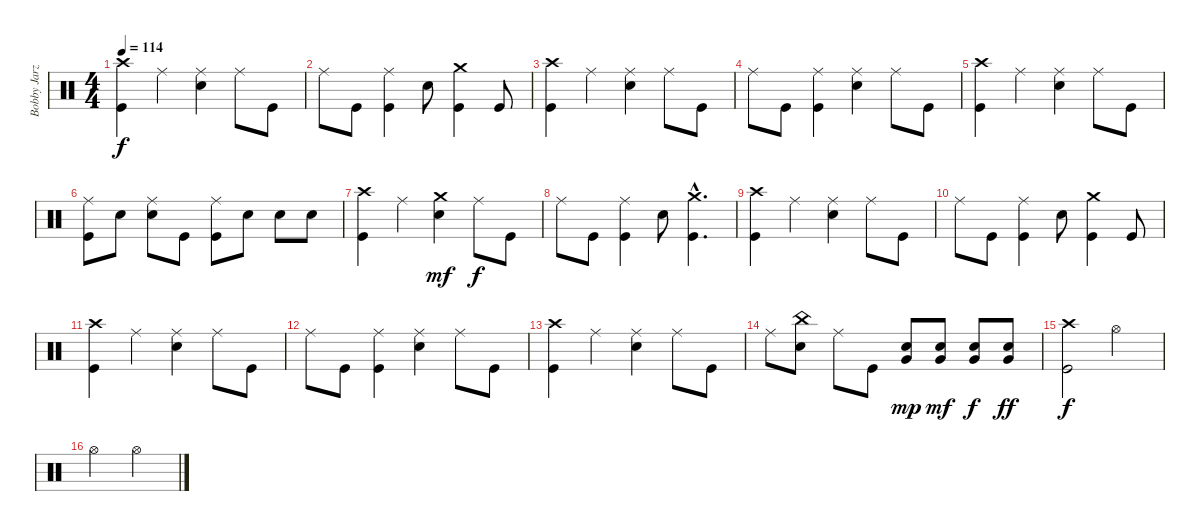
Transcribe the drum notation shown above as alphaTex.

\track ("Bobby Jarzombek" "Bobby Jarz") {instrument percussion}
\staff {score}
\articulation defaults
\ts (4 4)
\tempo 114
\clef neutral
\ks c
("Crash high (hit)" "Kick (hit)").4{dy f} "Ride (middle)".4 ("Ride (middle)" "Electric Snare (hit)").4 "Ride (middle)".8 "Kick (hit)".8 |
"Ride (middle)".8 "Kick (hit)".8 ("Ride (middle)" "Kick (hit)").4 "Electric Snare (hit)".8 ("Crash medium (hit)" "Kick (hit)").4 "Kick (hit)".8 |
("Crash high (hit)" "Kick (hit)").4 "Ride (middle)".4 ("Ride (middle)" "Electric Snare (hit)").4 "Ride (middle)".8 "Kick (hit)".8 |
"Ride (middle)".8 "Kick (hit)".8 ("Ride (middle)" "Kick (hit)").4 ("Ride (middle)" "Electric Snare (hit)").4 "Ride (middle)".8 "Kick (hit)".8 |
("Crash high (hit)" "Kick (hit)").4 "Ride (middle)".4 ("Ride (middle)" "Electric Snare (hit)").4 "Ride (middle)".8 "Kick (hit)".8 |
("Ride (middle)" "Kick (hit)").8 "Electric Snare (hit)".8 ("Ride (middle)" "Electric Snare (hit)").8 "Kick (hit)".8 ("Ride (middle)" "Kick (hit)").8 "Electric Snare (hit)".8 "Electric Snare (hit)".8 "Electric Snare (hit)".8 |
("Crash high (hit)" "Kick (hit)").4 "Ride (middle)".4 ("Crash medium (hit)" "Electric Snare (hit)").4{dy mf} "Ride (middle)".8{dy f} "Kick (hit)".8 |
"Ride (middle)".8 "Kick (hit)".8 ("Ride (middle)" "Kick (hit)").4 "Electric Snare (hit)".8 ("Crash medium (hit)"{hac} "Kick (hit)"{hac}).4{d} |
("Crash high (hit)" "Kick (hit)").4 "Ride (middle)".4 ("Ride (middle)" "Electric Snare (hit)").4 "Ride (middle)".8 "Kick (hit)".8 |
"Ride (middle)".8 "Kick (hit)".8 ("Ride (middle)" "Kick (hit)").4 "Electric Snare (hit)".8 ("Crash medium (hit)" "Kick (hit)").4 "Kick (hit)".8 |
("Crash high (hit)" "Kick (hit)").4 "Ride (middle)".4 ("Ride (middle)" "Electric Snare (hit)").4 "Ride (middle)".8 "Kick (hit)".8 |
"Ride (middle)".8 "Kick (hit)".8 ("Ride (middle)" "Kick (hit)").4 ("Ride (middle)" "Electric Snare (hit)").4 "Ride (middle)".8 "Kick (hit)".8 |
("Crash high (hit)" "Kick (hit)").4 "Ride (middle)".4 ("Ride (middle)" "Electric Snare (hit)").4 "Ride (middle)".8 "Kick (hit)".8 |
"Ride (middle)".8 ("China (hit)" "Electric Snare (hit)").8 "Ride (middle)".8 "Kick (hit)".8 ("Very Low Tom (hit)" "Electric Snare (hit)").8{dy mp} ("Very Low Tom (hit)" "Electric Snare (hit)").8{dy mf} ("Very Low Tom (hit)" "Electric Snare (hit)").8{dy f} ("Very Low Tom (hit)" "Electric Snare (hit)").8{dy ff} |
("Crash high (hit)" "Kick (hit)").2{dy f} "Hi-Hat (open)".2 |
"Hi-Hat (open)".2 "Hi-Hat (open)".2
